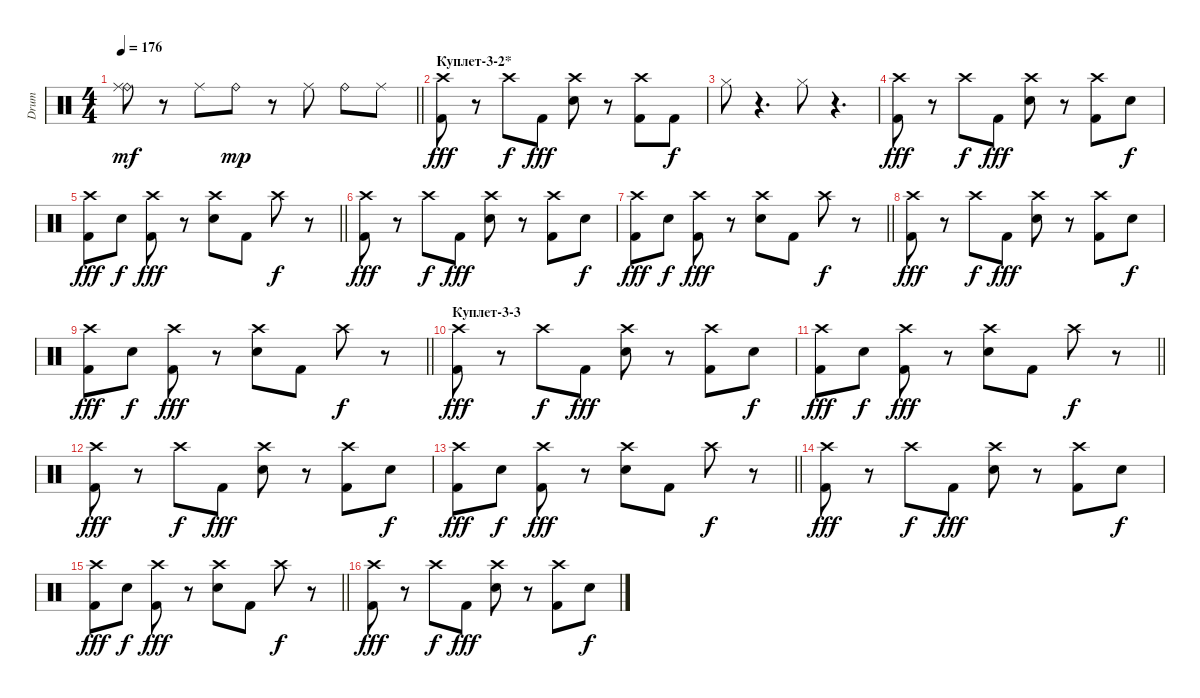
\track ("Drum" "Drum") {instrument percussion}
\staff {score}
\articulation defaults
\ts (4 4)
\tempo 176
\clef neutral
\barLineRight lightlight
\ks c
("Ride (bell)" "Ride (middle)").8{dy mf} r.8 "Ride (middle)".8 "Ride (bell)".8{dy mp} r.8 "Ride (middle)".8 "Ride (bell)".8 "Ride (middle)".8 |
\section ("" "Куплет-3-2*")
("Kick (hit) 2" "Crash high (hit)").8{dy fff} r.8 "Crash high (hit)".8{dy f} "Kick (hit) 2".8{dy fff} ("Snare (hit) 2" "Crash high (hit)").8 r.8 ("Kick (hit) 2" "Crash high (hit)").8 "Kick (hit) 2".8{dy f} |
"Hi-Hat (closed)".8 r.4{d} "Hi-Hat (closed)".8 r.4{d} |
("Kick (hit) 2" "Crash high (hit)").8{dy fff} r.8 "Crash high (hit)".8{dy f} "Kick (hit) 2".8{dy fff} ("Snare (hit) 2" "Crash high (hit)").8 r.8 ("Kick (hit) 2" "Crash high (hit)").8 "Electric Snare (hit)".8{dy f} |
\barLineRight lightlight
("Kick (hit) 2" "Crash high (hit)").8{dy fff} "Electric Snare (hit)".8{dy f} ("Kick (hit) 2" "Crash high (hit)").8{dy fff} r.8 ("Snare (hit) 2" "Crash high (hit)").8 "Kick (hit) 2".8 "Crash high (hit)".8{dy f} r.8 |
("Kick (hit) 2" "Crash high (hit)").8{dy fff} r.8 "Crash high (hit)".8{dy f} "Kick (hit) 2".8{dy fff} ("Snare (hit) 2" "Crash high (hit)").8 r.8 ("Kick (hit) 2" "Crash high (hit)").8 "Electric Snare (hit)".8{dy f} |
\barLineRight lightlight
("Kick (hit) 2" "Crash high (hit)").8{dy fff} "Electric Snare (hit)".8{dy f} ("Kick (hit) 2" "Crash high (hit)").8{dy fff} r.8 ("Snare (hit) 2" "Crash high (hit)").8 "Kick (hit) 2".8 "Crash high (hit)".8{dy f} r.8 |
("Kick (hit) 2" "Crash high (hit)").8{dy fff} r.8 "Crash high (hit)".8{dy f} "Kick (hit) 2".8{dy fff} ("Snare (hit) 2" "Crash high (hit)").8 r.8 ("Kick (hit) 2" "Crash high (hit)").8 "Electric Snare (hit)".8{dy f} |
\barLineRight lightlight
("Kick (hit) 2" "Crash high (hit)").8{dy fff} "Electric Snare (hit)".8{dy f} ("Kick (hit) 2" "Crash high (hit)").8{dy fff} r.8 ("Snare (hit) 2" "Crash high (hit)").8 "Kick (hit) 2".8 "Crash high (hit)".8{dy f} r.8 |
\section ("" "Куплет-3-3")
("Kick (hit) 2" "Crash high (hit)").8{dy fff} r.8 "Crash high (hit)".8{dy f} "Kick (hit) 2".8{dy fff} ("Snare (hit) 2" "Crash high (hit)").8 r.8 ("Kick (hit) 2" "Crash high (hit)").8 "Electric Snare (hit)".8{dy f} |
\barLineRight lightlight
("Kick (hit) 2" "Crash high (hit)").8{dy fff} "Electric Snare (hit)".8{dy f} ("Kick (hit) 2" "Crash high (hit)").8{dy fff} r.8 ("Snare (hit) 2" "Crash high (hit)").8 "Kick (hit) 2".8 "Crash high (hit)".8{dy f} r.8 |
("Kick (hit) 2" "Crash high (hit)").8{dy fff} r.8 "Crash high (hit)".8{dy f} "Kick (hit) 2".8{dy fff} ("Snare (hit) 2" "Crash high (hit)").8 r.8 ("Kick (hit) 2" "Crash high (hit)").8 "Electric Snare (hit)".8{dy f} |
\barLineRight lightlight
("Kick (hit) 2" "Crash high (hit)").8{dy fff} "Electric Snare (hit)".8{dy f} ("Kick (hit) 2" "Crash high (hit)").8{dy fff} r.8 ("Snare (hit) 2" "Crash high (hit)").8 "Kick (hit) 2".8 "Crash high (hit)".8{dy f} r.8 |
("Kick (hit) 2" "Crash high (hit)").8{dy fff} r.8 "Crash high (hit)".8{dy f} "Kick (hit) 2".8{dy fff} ("Snare (hit) 2" "Crash high (hit)").8 r.8 ("Kick (hit) 2" "Crash high (hit)").8 "Electric Snare (hit)".8{dy f} |
\barLineRight lightlight
("Kick (hit) 2" "Crash high (hit)").8{dy fff} "Electric Snare (hit)".8{dy f} ("Kick (hit) 2" "Crash high (hit)").8{dy fff} r.8 ("Snare (hit) 2" "Crash high (hit)").8 "Kick (hit) 2".8 "Crash high (hit)".8{dy f} r.8 |
("Kick (hit) 2" "Crash high (hit)").8{dy fff} r.8 "Crash high (hit)".8{dy f} "Kick (hit) 2".8{dy fff} ("Snare (hit) 2" "Crash high (hit)").8 r.8 ("Kick (hit) 2" "Crash high (hit)").8 "Electric Snare (hit)".8{dy f}
